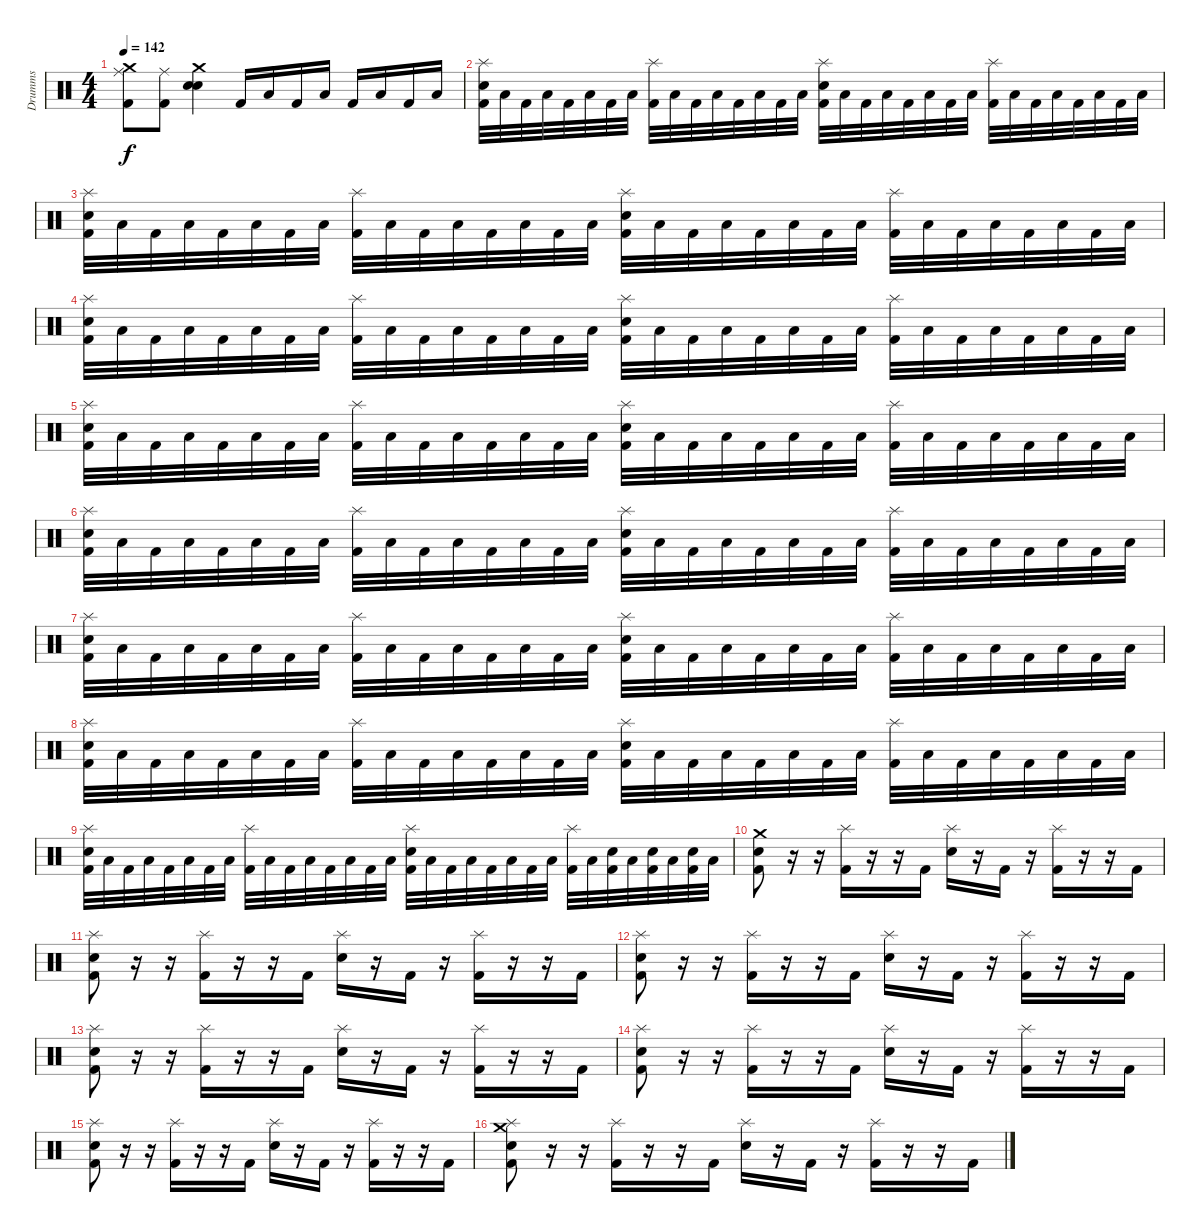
\track ("Drumms" "Drumms") {instrument percussion}
\staff {score}
\articulation defaults
\ts (4 4)
\tempo 142
\clef neutral
\ks c
("Crash medium (hit)" "Ride (middle)" "Kick (hit) 2").8{dy f} ("Ride (middle)" "Kick (hit) 2").8 ("Crash medium (hit)" "Snare (hit) 2" "Electric Snare (hit)").4 "Kick (hit) 2".16 "Low Floor Tom (hit)".16 "Kick (hit) 2".16 "Low Floor Tom (hit)".16 "Kick (hit) 2".16 "Low Floor Tom (hit)".16 "Kick (hit) 2".16 "Low Floor Tom (hit)".16 |
("Splash (hit)" "Kick (hit) 2" "Electric Snare (hit)").32 "Low Floor Tom (hit)".32 "Kick (hit) 2".32 "Low Floor Tom (hit)".32 "Kick (hit) 2".32 "Low Floor Tom (hit)".32 "Kick (hit) 2".32 "Low Floor Tom (hit)".32 ("Splash (hit)" "Kick (hit) 2").32 "Low Floor Tom (hit)".32 "Kick (hit) 2".32 "Low Floor Tom (hit)".32 "Kick (hit) 2".32 "Low Floor Tom (hit)".32 "Kick (hit) 2".32 "Low Floor Tom (hit)".32 ("Splash (hit)" "Kick (hit) 2" "Electric Snare (hit)").32 "Low Floor Tom (hit)".32 "Kick (hit) 2".32 "Low Floor Tom (hit)".32 "Kick (hit) 2".32 "Low Floor Tom (hit)".32 "Kick (hit) 2".32 "Low Floor Tom (hit)".32 ("Splash (hit)" "Kick (hit) 2").32 "Low Floor Tom (hit)".32 "Kick (hit) 2".32 "Low Floor Tom (hit)".32 "Kick (hit) 2".32 "Low Floor Tom (hit)".32 "Kick (hit) 2".32 "Low Floor Tom (hit)".32 |
("Splash (hit)" "Kick (hit) 2" "Electric Snare (hit)").32 "Low Floor Tom (hit)".32 "Kick (hit) 2".32 "Low Floor Tom (hit)".32 "Kick (hit) 2".32 "Low Floor Tom (hit)".32 "Kick (hit) 2".32 "Low Floor Tom (hit)".32 ("Splash (hit)" "Kick (hit) 2").32 "Low Floor Tom (hit)".32 "Kick (hit) 2".32 "Low Floor Tom (hit)".32 "Kick (hit) 2".32 "Low Floor Tom (hit)".32 "Kick (hit) 2".32 "Low Floor Tom (hit)".32 ("Splash (hit)" "Kick (hit) 2" "Electric Snare (hit)").32 "Low Floor Tom (hit)".32 "Kick (hit) 2".32 "Low Floor Tom (hit)".32 "Kick (hit) 2".32 "Low Floor Tom (hit)".32 "Kick (hit) 2".32 "Low Floor Tom (hit)".32 ("Splash (hit)" "Kick (hit) 2").32 "Low Floor Tom (hit)".32 "Kick (hit) 2".32 "Low Floor Tom (hit)".32 "Kick (hit) 2".32 "Low Floor Tom (hit)".32 "Kick (hit) 2".32 "Low Floor Tom (hit)".32 |
("Splash (hit)" "Kick (hit) 2" "Electric Snare (hit)").32 "Low Floor Tom (hit)".32 "Kick (hit) 2".32 "Low Floor Tom (hit)".32 "Kick (hit) 2".32 "Low Floor Tom (hit)".32 "Kick (hit) 2".32 "Low Floor Tom (hit)".32 ("Splash (hit)" "Kick (hit) 2").32 "Low Floor Tom (hit)".32 "Kick (hit) 2".32 "Low Floor Tom (hit)".32 "Kick (hit) 2".32 "Low Floor Tom (hit)".32 "Kick (hit) 2".32 "Low Floor Tom (hit)".32 ("Splash (hit)" "Kick (hit) 2" "Electric Snare (hit)").32 "Low Floor Tom (hit)".32 "Kick (hit) 2".32 "Low Floor Tom (hit)".32 "Kick (hit) 2".32 "Low Floor Tom (hit)".32 "Kick (hit) 2".32 "Low Floor Tom (hit)".32 ("Splash (hit)" "Kick (hit) 2").32 "Low Floor Tom (hit)".32 "Kick (hit) 2".32 "Low Floor Tom (hit)".32 "Kick (hit) 2".32 "Low Floor Tom (hit)".32 "Kick (hit) 2".32 "Low Floor Tom (hit)".32 |
("Splash (hit)" "Kick (hit) 2" "Electric Snare (hit)").32 "Low Floor Tom (hit)".32 "Kick (hit) 2".32 "Low Floor Tom (hit)".32 "Kick (hit) 2".32 "Low Floor Tom (hit)".32 "Kick (hit) 2".32 "Low Floor Tom (hit)".32 ("Splash (hit)" "Kick (hit) 2").32 "Low Floor Tom (hit)".32 "Kick (hit) 2".32 "Low Floor Tom (hit)".32 "Kick (hit) 2".32 "Low Floor Tom (hit)".32 "Kick (hit) 2".32 "Low Floor Tom (hit)".32 ("Splash (hit)" "Kick (hit) 2" "Electric Snare (hit)").32 "Low Floor Tom (hit)".32 "Kick (hit) 2".32 "Low Floor Tom (hit)".32 "Kick (hit) 2".32 "Low Floor Tom (hit)".32 "Kick (hit) 2".32 "Low Floor Tom (hit)".32 ("Splash (hit)" "Kick (hit) 2").32 "Low Floor Tom (hit)".32 "Kick (hit) 2".32 "Low Floor Tom (hit)".32 "Kick (hit) 2".32 "Low Floor Tom (hit)".32 "Kick (hit) 2".32 "Low Floor Tom (hit)".32 |
("Splash (hit)" "Kick (hit) 2" "Electric Snare (hit)").32 "Low Floor Tom (hit)".32 "Kick (hit) 2".32 "Low Floor Tom (hit)".32 "Kick (hit) 2".32 "Low Floor Tom (hit)".32 "Kick (hit) 2".32 "Low Floor Tom (hit)".32 ("Splash (hit)" "Kick (hit) 2").32 "Low Floor Tom (hit)".32 "Kick (hit) 2".32 "Low Floor Tom (hit)".32 "Kick (hit) 2".32 "Low Floor Tom (hit)".32 "Kick (hit) 2".32 "Low Floor Tom (hit)".32 ("Splash (hit)" "Kick (hit) 2" "Electric Snare (hit)").32 "Low Floor Tom (hit)".32 "Kick (hit) 2".32 "Low Floor Tom (hit)".32 "Kick (hit) 2".32 "Low Floor Tom (hit)".32 "Kick (hit) 2".32 "Low Floor Tom (hit)".32 ("Splash (hit)" "Kick (hit) 2").32 "Low Floor Tom (hit)".32 "Kick (hit) 2".32 "Low Floor Tom (hit)".32 "Kick (hit) 2".32 "Low Floor Tom (hit)".32 "Kick (hit) 2".32 "Low Floor Tom (hit)".32 |
("Splash (hit)" "Kick (hit) 2" "Electric Snare (hit)").32 "Low Floor Tom (hit)".32 "Kick (hit) 2".32 "Low Floor Tom (hit)".32 "Kick (hit) 2".32 "Low Floor Tom (hit)".32 "Kick (hit) 2".32 "Low Floor Tom (hit)".32 ("Splash (hit)" "Kick (hit) 2").32 "Low Floor Tom (hit)".32 "Kick (hit) 2".32 "Low Floor Tom (hit)".32 "Kick (hit) 2".32 "Low Floor Tom (hit)".32 "Kick (hit) 2".32 "Low Floor Tom (hit)".32 ("Splash (hit)" "Kick (hit) 2" "Electric Snare (hit)").32 "Low Floor Tom (hit)".32 "Kick (hit) 2".32 "Low Floor Tom (hit)".32 "Kick (hit) 2".32 "Low Floor Tom (hit)".32 "Kick (hit) 2".32 "Low Floor Tom (hit)".32 ("Splash (hit)" "Kick (hit) 2").32 "Low Floor Tom (hit)".32 "Kick (hit) 2".32 "Low Floor Tom (hit)".32 "Kick (hit) 2".32 "Low Floor Tom (hit)".32 "Kick (hit) 2".32 "Low Floor Tom (hit)".32 |
("Splash (hit)" "Kick (hit) 2" "Electric Snare (hit)").32 "Low Floor Tom (hit)".32 "Kick (hit) 2".32 "Low Floor Tom (hit)".32 "Kick (hit) 2".32 "Low Floor Tom (hit)".32 "Kick (hit) 2".32 "Low Floor Tom (hit)".32 ("Splash (hit)" "Kick (hit) 2").32 "Low Floor Tom (hit)".32 "Kick (hit) 2".32 "Low Floor Tom (hit)".32 "Kick (hit) 2".32 "Low Floor Tom (hit)".32 "Kick (hit) 2".32 "Low Floor Tom (hit)".32 ("Splash (hit)" "Kick (hit) 2" "Electric Snare (hit)").32 "Low Floor Tom (hit)".32 "Kick (hit) 2".32 "Low Floor Tom (hit)".32 "Kick (hit) 2".32 "Low Floor Tom (hit)".32 "Kick (hit) 2".32 "Low Floor Tom (hit)".32 ("Splash (hit)" "Kick (hit) 2").32 "Low Floor Tom (hit)".32 "Kick (hit) 2".32 "Low Floor Tom (hit)".32 "Kick (hit) 2".32 "Low Floor Tom (hit)".32 "Kick (hit) 2".32 "Low Floor Tom (hit)".32 |
("Splash (hit)" "Kick (hit) 2" "Electric Snare (hit)").32 "Low Floor Tom (hit)".32 "Kick (hit) 2".32 "Low Floor Tom (hit)".32 "Kick (hit) 2".32 "Low Floor Tom (hit)".32 "Kick (hit) 2".32 "Low Floor Tom (hit)".32 ("Splash (hit)" "Kick (hit) 2").32 "Low Floor Tom (hit)".32 "Kick (hit) 2".32 "Low Floor Tom (hit)".32 "Kick (hit) 2".32 "Low Floor Tom (hit)".32 "Kick (hit) 2".32 "Low Floor Tom (hit)".32 ("Splash (hit)" "Kick (hit) 2" "Electric Snare (hit)").32 "Low Floor Tom (hit)".32 "Kick (hit) 2".32 "Low Floor Tom (hit)".32 "Kick (hit) 2".32 "Low Floor Tom (hit)".32 "Kick (hit) 2".32 "Low Floor Tom (hit)".32 ("Splash (hit)" "Kick (hit) 2").32 "Low Floor Tom (hit)".32 ("Electric Snare (hit)" "Kick (hit) 2").32 "Low Floor Tom (hit)".32 ("Electric Snare (hit)" "Kick (hit) 2").32 "Low Floor Tom (hit)".32 ("Electric Snare (hit)" "Kick (hit) 2").32 "Low Floor Tom (hit)".32 |
("Crash medium (hit)" "Kick (hit) 2" "Snare (hit) 2").8 r.16 r.16 ("Splash (hit)" "Kick (hit) 2").16 r.16 r.16 "Kick (hit) 2".16 ("Splash (hit)" "Snare (hit) 2").16 r.16 "Kick (hit) 2".16 r.16 ("Splash (hit)" "Kick (hit) 2").16 r.16 r.16 "Kick (hit) 2".16 |
("Splash (hit)" "Kick (hit) 2" "Snare (hit) 2").8 r.16 r.16 ("Splash (hit)" "Kick (hit) 2").16 r.16 r.16 "Kick (hit) 2".16 ("Splash (hit)" "Snare (hit) 2").16 r.16 "Kick (hit) 2".16 r.16 ("Splash (hit)" "Kick (hit) 2").16 r.16 r.16 "Kick (hit) 2".16 |
("Splash (hit)" "Kick (hit) 2" "Snare (hit) 2").8 r.16 r.16 ("Splash (hit)" "Kick (hit) 2").16 r.16 r.16 "Kick (hit) 2".16 ("Splash (hit)" "Snare (hit) 2").16 r.16 "Kick (hit) 2".16 r.16 ("Splash (hit)" "Kick (hit) 2").16 r.16 r.16 "Kick (hit) 2".16 |
("Splash (hit)" "Kick (hit) 2" "Snare (hit) 2").8 r.16 r.16 ("Splash (hit)" "Kick (hit) 2").16 r.16 r.16 "Kick (hit) 2".16 ("Splash (hit)" "Snare (hit) 2").16 r.16 "Kick (hit) 2".16 r.16 ("Splash (hit)" "Kick (hit) 2").16 r.16 r.16 "Kick (hit) 2".16 |
("Splash (hit)" "Kick (hit) 2" "Snare (hit) 2").8 r.16 r.16 ("Splash (hit)" "Kick (hit) 2").16 r.16 r.16 "Kick (hit) 2".16 ("Splash (hit)" "Snare (hit) 2").16 r.16 "Kick (hit) 2".16 r.16 ("Splash (hit)" "Kick (hit) 2").16 r.16 r.16 "Kick (hit) 2".16 |
("Splash (hit)" "Kick (hit) 2" "Snare (hit) 2").8 r.16 r.16 ("Splash (hit)" "Kick (hit) 2").16 r.16 r.16 "Kick (hit) 2".16 ("Splash (hit)" "Snare (hit) 2").16 r.16 "Kick (hit) 2".16 r.16 ("Splash (hit)" "Kick (hit) 2").16 r.16 r.16 "Kick (hit) 2".16 |
("Crash medium (hit)" "Splash (hit)" "Kick (hit) 2" "Snare (hit) 2").8 r.16 r.16 ("Splash (hit)" "Kick (hit) 2").16 r.16 r.16 "Kick (hit) 2".16 ("Splash (hit)" "Snare (hit) 2").16 r.16 "Kick (hit) 2".16 r.16 ("Splash (hit)" "Kick (hit) 2").16 r.16 r.16 "Kick (hit) 2".16
